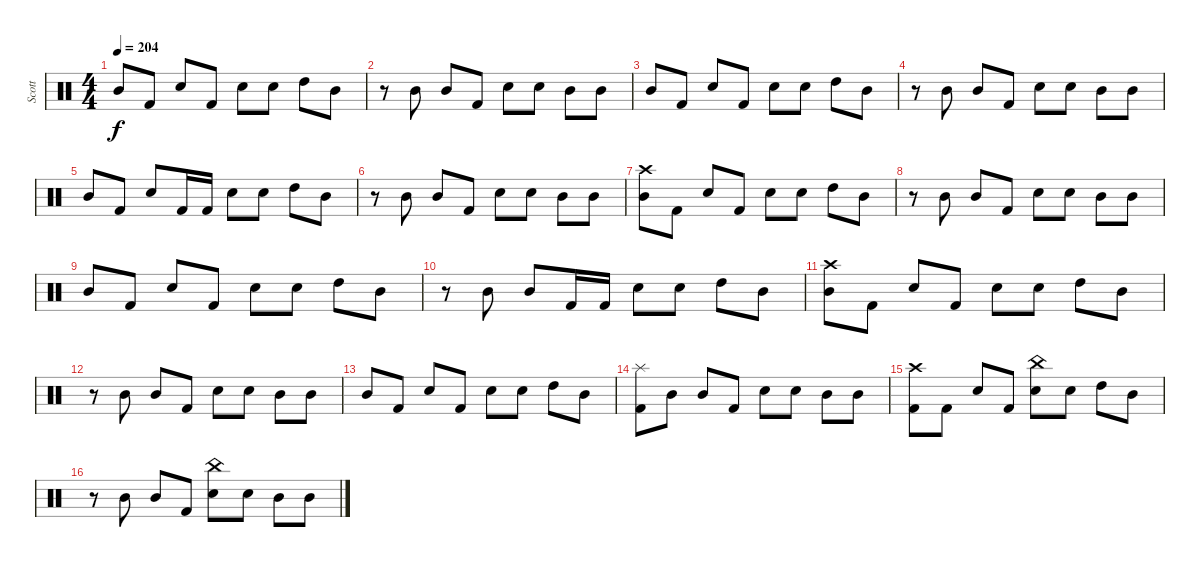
\track ("Scott" "Scott") {instrument percussion}
\staff {score}
\articulation defaults
\ts (4 4)
\tempo 204
\clef neutral
\ks c "Mid Tom (hit)".8{dy f} "Kick (hit) 2".8 "Snare (hit) 2".8 "Kick (hit) 2".8 "Snare (hit) 2".8 "Snare (hit) 2".8 "High Tom (hit)".8 "Mid Tom (hit)".8
|
r.8 "Mid Tom (hit)".8 "Mid Tom (hit)".8 "Kick (hit) 2".8 "Snare (hit) 2".8 "Snare (hit) 2".8 "Mid Tom (hit)".8 "Mid Tom (hit)".8 |
"Mid Tom (hit)".8 "Kick (hit) 2".8 "Snare (hit) 2".8 "Kick (hit) 2".8 "Snare (hit) 2".8 "Snare (hit) 2".8 "High Tom (hit)".8 "Mid Tom (hit)".8 |
r.8 "Mid Tom (hit)".8 "Mid Tom (hit)".8 "Kick (hit) 2".8 "Snare (hit) 2".8 "Snare (hit) 2".8 "Mid Tom (hit)".8 "Mid Tom (hit)".8 |
"Mid Tom (hit)".8 "Kick (hit) 2".8 "Snare (hit) 2".8 "Kick (hit) 2".16 "Kick (hit) 2".16 "Snare (hit) 2".8 "Snare (hit) 2".8 "High Tom (hit)".8 "Mid Tom (hit)".8 |
r.8 "Mid Tom (hit)".8 "Mid Tom (hit)".8 "Kick (hit) 2".8 "Snare (hit) 2".8 "Snare (hit) 2".8 "Mid Tom (hit)".8 "Mid Tom (hit)".8 |
("Crash high (hit)" "Mid Tom (hit)").8 "Kick (hit) 2".8 "Snare (hit) 2".8 "Kick (hit) 2".8 "Snare (hit) 2".8 "Snare (hit) 2".8 "High Tom (hit)".8 "Mid Tom (hit)".8 |
r.8 "Mid Tom (hit)".8 "Mid Tom (hit)".8 "Kick (hit) 2".8 "Snare (hit) 2".8 "Snare (hit) 2".8 "Mid Tom (hit)".8 "Mid Tom (hit)".8 |
"Mid Tom (hit)".8 "Kick (hit) 2".8 "Snare (hit) 2".8 "Kick (hit) 2".8 "Snare (hit) 2".8 "Snare (hit) 2".8 "High Tom (hit)".8 "Mid Tom (hit)".8 |
r.8 "Mid Tom (hit)".8 "Mid Tom (hit)".8 "Kick (hit) 2".16 "Kick (hit) 2".16 "Snare (hit) 2".8 "Snare (hit) 2".8 "High Tom (hit)".8 "Mid Tom (hit)".8 |
("Crash high (hit)" "Mid Tom (hit)").8 "Kick (hit) 2".8 "Snare (hit) 2".8 "Kick (hit) 2".8 "Snare (hit) 2".8 "Snare (hit) 2".8 "High Tom (hit)".8 "Mid Tom (hit)".8 |
r.8 "Mid Tom (hit)".8 "Mid Tom (hit)".8 "Kick (hit) 2".8 "Snare (hit) 2".8 "Snare (hit) 2".8 "Mid Tom (hit)".8 "Mid Tom (hit)".8 |
"Mid Tom (hit)".8 "Kick (hit) 2".8 "Snare (hit) 2".8 "Kick (hit) 2".8 "Snare (hit) 2".8 "Snare (hit) 2".8 "High Tom (hit)".8 "Mid Tom (hit)".8 |
("Splash (hit)" "Kick (hit) 2").8 "Mid Tom (hit)".8 "Mid Tom (hit)".8 "Kick (hit) 2".8 "Snare (hit) 2".8 "Snare (hit) 2".8 "Mid Tom (hit)".8 "Mid Tom (hit)".8 |
("Crash high (hit)" "Kick (hit) 2").8 "Kick (hit) 2".8 "Snare (hit) 2".8 "Kick (hit) 2".8 ("China (hit)" "Snare (hit) 2").8 "Snare (hit) 2".8 "High Tom (hit)".8 "Mid Tom (hit)".8 |
r.8 "Mid Tom (hit)".8 "Mid Tom (hit)".8 "Kick (hit) 2".8 ("China (hit)" "Snare (hit) 2").8 "Snare (hit) 2".8 "Mid Tom (hit)".8 "Mid Tom (hit)".8
